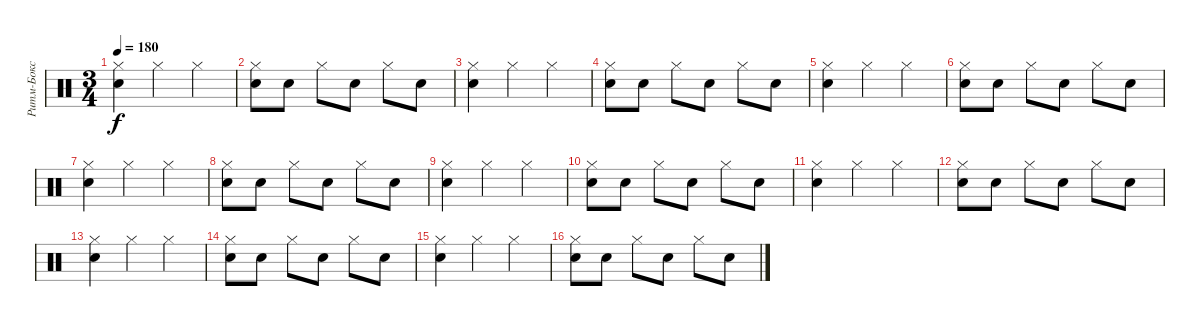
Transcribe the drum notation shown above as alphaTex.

\track ("Ритм-Бокс" "Ритм-Бокс") {instrument percussion}
\staff {score}
\articulation defaults
\ts (3 4)
\tempo 180
\clef neutral
\ks c
("Hi-Hat (closed)" "Electric Snare (hit)").4{dy f} "Hi-Hat (closed)".4 "Hi-Hat (closed)".4 |
("Hi-Hat (closed)" "Electric Snare (hit)").8 "Electric Snare (hit)".8 "Hi-Hat (closed)".8 "Electric Snare (hit)".8 "Hi-Hat (closed)".8 "Electric Snare (hit)".8 |
("Hi-Hat (closed)" "Electric Snare (hit)").4 "Hi-Hat (closed)".4 "Hi-Hat (closed)".4 |
("Hi-Hat (closed)" "Electric Snare (hit)").8 "Electric Snare (hit)".8 "Hi-Hat (closed)".8 "Electric Snare (hit)".8 "Hi-Hat (closed)".8 "Electric Snare (hit)".8 |
("Hi-Hat (closed)" "Electric Snare (hit)").4 "Hi-Hat (closed)".4 "Hi-Hat (closed)".4 |
("Hi-Hat (closed)" "Electric Snare (hit)").8 "Electric Snare (hit)".8 "Hi-Hat (closed)".8 "Electric Snare (hit)".8 "Hi-Hat (closed)".8 "Electric Snare (hit)".8 |
("Hi-Hat (closed)" "Electric Snare (hit)").4 "Hi-Hat (closed)".4 "Hi-Hat (closed)".4 |
("Hi-Hat (closed)" "Electric Snare (hit)").8 "Electric Snare (hit)".8 "Hi-Hat (closed)".8 "Electric Snare (hit)".8 "Hi-Hat (closed)".8 "Electric Snare (hit)".8 |
("Hi-Hat (closed)" "Electric Snare (hit)").4 "Hi-Hat (closed)".4 "Hi-Hat (closed)".4 |
("Hi-Hat (closed)" "Electric Snare (hit)").8 "Electric Snare (hit)".8 "Hi-Hat (closed)".8 "Electric Snare (hit)".8 "Hi-Hat (closed)".8 "Electric Snare (hit)".8 |
("Hi-Hat (closed)" "Electric Snare (hit)").4 "Hi-Hat (closed)".4 "Hi-Hat (closed)".4 |
("Hi-Hat (closed)" "Electric Snare (hit)").8 "Electric Snare (hit)".8 "Hi-Hat (closed)".8 "Electric Snare (hit)".8 "Hi-Hat (closed)".8 "Electric Snare (hit)".8 |
("Hi-Hat (closed)" "Electric Snare (hit)").4 "Hi-Hat (closed)".4 "Hi-Hat (closed)".4 |
("Hi-Hat (closed)" "Electric Snare (hit)").8 "Electric Snare (hit)".8 "Hi-Hat (closed)".8 "Electric Snare (hit)".8 "Hi-Hat (closed)".8 "Electric Snare (hit)".8 |
("Hi-Hat (closed)" "Electric Snare (hit)").4 "Hi-Hat (closed)".4 "Hi-Hat (closed)".4 |
("Hi-Hat (closed)" "Electric Snare (hit)").8 "Electric Snare (hit)".8 "Hi-Hat (closed)".8 "Electric Snare (hit)".8 "Hi-Hat (closed)".8 "Electric Snare (hit)".8
